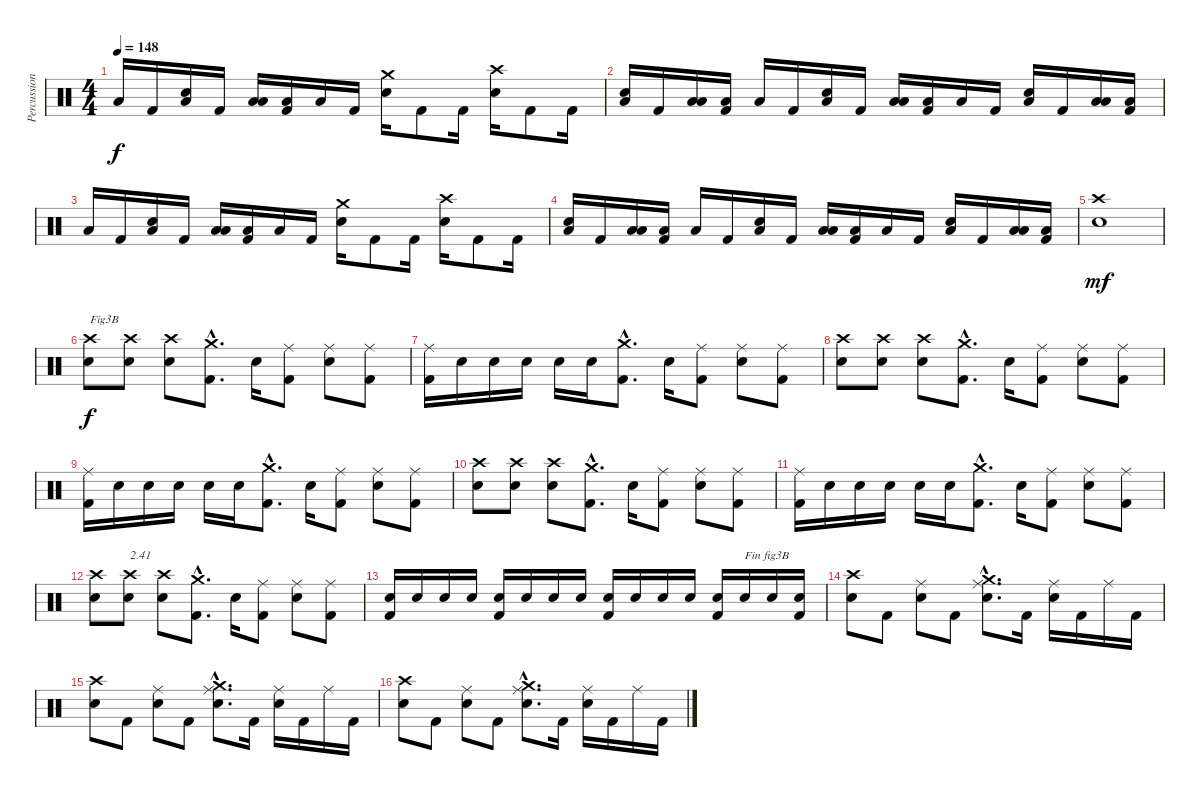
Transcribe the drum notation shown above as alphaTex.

\track ("Percussions" "Percussion") {instrument percussion}
\staff {score}
\articulation defaults
\ts (4 4)
\tempo 148
\clef neutral
\ks c "Low Floor Tom (hit)".16{dy f} "Kick (hit) 2".16
("Electric Snare (hit)" "Low Floor Tom (hit)").16 "Kick (hit) 2".16 ("Low Tom (hit)" "Low Floor Tom (hit)").16 ("Kick (hit) 2" "Low Tom (hit)").16 "Low Floor Tom (hit)".16 "Kick (hit) 2".16 ("Electric Snare (hit)" "Crash medium (hit)").16 "Kick (hit) 2".8 "Kick (hit) 2".16 ("Electric Snare (hit)" "Crash high (hit)").16 "Kick (hit) 2".8 "Kick (hit) 2".16 |
("Electric Snare (hit)" "Low Floor Tom (hit)").16 "Kick (hit) 2".16 ("Low Tom (hit)" "Low Floor Tom (hit)").16 ("Kick (hit) 2" "Low Tom (hit)").16 "Low Floor Tom (hit)".16 "Kick (hit) 2".16 ("Electric Snare (hit)" "Low Floor Tom (hit)").16 "Kick (hit) 2".16 ("Low Tom (hit)" "Low Floor Tom (hit)").16 ("Kick (hit) 2" "Low Tom (hit)").16 "Low Floor Tom (hit)".16 "Kick (hit) 2".16 ("Electric Snare (hit)" "Low Floor Tom (hit)").16 "Kick (hit) 2".16 ("Low Tom (hit)" "Low Floor Tom (hit)").16 ("Kick (hit) 2" "Low Tom (hit)").16 |
"Low Floor Tom (hit)".16 "Kick (hit) 2".16 ("Electric Snare (hit)" "Low Floor Tom (hit)").16 "Kick (hit) 2".16 ("Low Tom (hit)" "Low Floor Tom (hit)").16 ("Kick (hit) 2" "Low Tom (hit)").16 "Low Floor Tom (hit)".16 "Kick (hit) 2".16 ("Electric Snare (hit)" "Crash medium (hit)").16 "Kick (hit) 2".8 "Kick (hit) 2".16 ("Electric Snare (hit)" "Crash high (hit)").16 "Kick (hit) 2".8 "Kick (hit) 2".16 |
("Electric Snare (hit)" "Low Floor Tom (hit)").16 "Kick (hit) 2".16 ("Low Tom (hit)" "Low Floor Tom (hit)").16 ("Kick (hit) 2" "Low Tom (hit)").16 "Low Floor Tom (hit)".16 "Kick (hit) 2".16 ("Electric Snare (hit)" "Low Floor Tom (hit)").16 "Kick (hit) 2".16 ("Low Tom (hit)" "Low Floor Tom (hit)").16 ("Kick (hit) 2" "Low Tom (hit)").16 "Low Floor Tom (hit)".16 "Kick (hit) 2".16 ("Electric Snare (hit)" "Low Floor Tom (hit)").16 "Kick (hit) 2".16 ("Low Tom (hit)" "Low Floor Tom (hit)").16 ("Kick (hit) 2" "Low Tom (hit)").16 |
("Electric Snare (hit)" "Crash high (hit)").1{dy mf} |
("Electric Snare (hit)" "Crash high (hit)").8{txt "Fig3B" dy f} ("Electric Snare (hit)" "Crash high (hit)").8 ("Electric Snare (hit)" "Crash high (hit)").8 ("Kick (hit) 2"{hac} "Crash medium (hit)"{hac}).8{d} "Electric Snare (hit)".16 ("Kick (hit) 2" "Ride (middle)").8 ("Electric Snare (hit)" "Ride (middle)").8 ("Kick (hit) 2" "Ride (middle)").8 |
("Kick (hit) 2" "Ride (middle)").16 "Electric Snare (hit)".16 "Electric Snare (hit)".16 "Electric Snare (hit)".16 "Electric Snare (hit)".16 "Electric Snare (hit)".16 ("Kick (hit) 2"{hac} "Crash medium (hit)"{hac}).8{d} "Electric Snare (hit)".16 ("Kick (hit) 2" "Ride (middle)").8 ("Electric Snare (hit)" "Ride (middle)").8 ("Kick (hit) 2" "Ride (middle)").8 |
("Electric Snare (hit)" "Crash high (hit)").8 ("Electric Snare (hit)" "Crash high (hit)").8 ("Electric Snare (hit)" "Crash high (hit)").8 ("Kick (hit) 2"{hac} "Crash medium (hit)"{hac}).8{d} "Electric Snare (hit)".16 ("Kick (hit) 2" "Ride (middle)").8 ("Electric Snare (hit)" "Ride (middle)").8 ("Kick (hit) 2" "Ride (middle)").8 |
("Kick (hit) 2" "Ride (middle)").16 "Electric Snare (hit)".16 "Electric Snare (hit)".16 "Electric Snare (hit)".16 "Electric Snare (hit)".16 "Electric Snare (hit)".16 ("Kick (hit) 2"{hac} "Crash medium (hit)"{hac}).8{d} "Electric Snare (hit)".16 ("Kick (hit) 2" "Ride (middle)").8 ("Electric Snare (hit)" "Ride (middle)").8 ("Kick (hit) 2" "Ride (middle)").8 |
("Electric Snare (hit)" "Crash high (hit)").8 ("Electric Snare (hit)" "Crash high (hit)").8 ("Electric Snare (hit)" "Crash high (hit)").8 ("Kick (hit) 2"{hac} "Crash medium (hit)"{hac}).8{d} "Electric Snare (hit)".16 ("Kick (hit) 2" "Ride (middle)").8 ("Electric Snare (hit)" "Ride (middle)").8 ("Kick (hit) 2" "Ride (middle)").8 |
("Kick (hit) 2" "Ride (middle)").16 "Electric Snare (hit)".16 "Electric Snare (hit)".16 "Electric Snare (hit)".16 "Electric Snare (hit)".16 "Electric Snare (hit)".16 ("Kick (hit) 2"{hac} "Crash medium (hit)"{hac}).8{d} "Electric Snare (hit)".16 ("Kick (hit) 2" "Ride (middle)").8 ("Electric Snare (hit)" "Ride (middle)").8 ("Kick (hit) 2" "Ride (middle)").8 |
("Electric Snare (hit)" "Crash high (hit)").8 ("Electric Snare (hit)" "Crash high (hit)").8{txt "2.41"} ("Electric Snare (hit)" "Crash high (hit)").8 ("Kick (hit) 2"{hac} "Crash medium (hit)"{hac}).8{d} "Electric Snare (hit)".16 ("Kick (hit) 2" "Ride (middle)").8 ("Electric Snare (hit)" "Ride (middle)").8 ("Kick (hit) 2" "Ride (middle)").8 |
("Kick (hit) 2" "Electric Snare (hit)").16 "Electric Snare (hit)".16 "Electric Snare (hit)".16 "Electric Snare (hit)".16 ("Kick (hit) 2" "Electric Snare (hit)").16 "Electric Snare (hit)".16 "Electric Snare (hit)".16 "Electric Snare (hit)".16 ("Kick (hit) 2" "Electric Snare (hit)").16 "Electric Snare (hit)".16 "Electric Snare (hit)".16 "Electric Snare (hit)".16 ("Kick (hit) 2" "Electric Snare (hit)").16 "Electric Snare (hit)".16{txt "Fin fig3B"} "Electric Snare (hit)".16 ("Kick (hit) 2" "Electric Snare (hit)").16 |
("Electric Snare (hit)" "Crash high (hit)").8 "Kick (hit) 2".8 ("Electric Snare (hit)" "Ride (middle)").8 "Kick (hit) 2".8 ("Electric Snare (hit)"{hac} "Crash medium (hit)"{hac} "Ride (middle)"{hac}).8{d} "Kick (hit) 2".16 ("Electric Snare (hit)" "Ride (middle)").16 "Kick (hit) 2".16 "Ride (middle)".16 "Kick (hit) 2".16 |
("Electric Snare (hit)" "Crash high (hit)").8 "Kick (hit) 2".8 ("Electric Snare (hit)" "Ride (middle)").8 "Kick (hit) 2".8 ("Electric Snare (hit)"{hac} "Crash medium (hit)"{hac} "Ride (middle)"{hac}).8{d} "Kick (hit) 2".16 ("Electric Snare (hit)" "Ride (middle)").16 "Kick (hit) 2".16 "Ride (middle)".16 "Kick (hit) 2".16 |
("Electric Snare (hit)" "Crash high (hit)").8 "Kick (hit) 2".8 ("Electric Snare (hit)" "Ride (middle)").8 "Kick (hit) 2".8 ("Electric Snare (hit)"{hac} "Crash medium (hit)"{hac} "Ride (middle)"{hac}).8{d} "Kick (hit) 2".16 ("Electric Snare (hit)" "Ride (middle)").16 "Kick (hit) 2".16 "Ride (middle)".16 "Kick (hit) 2".16
